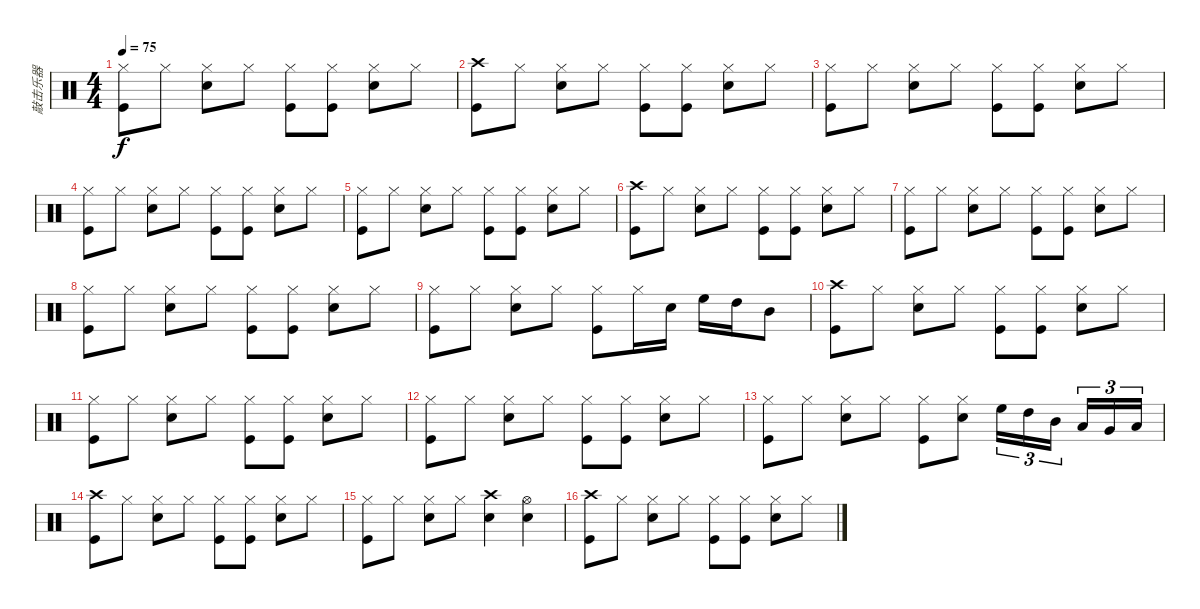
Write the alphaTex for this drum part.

\track ("敲击乐器" "敲击乐器") {instrument percussion}
\staff {score}
\articulation defaults
\ts (4 4)
\tempo 75
\clef neutral
\ks c
("Hi-Hat (closed)" "Kick (hit)").8{dy f} "Hi-Hat (closed)".8 ("Snare (hit) 2" "Hi-Hat (closed)").8 "Hi-Hat (closed)".8 ("Kick (hit)" "Hi-Hat (closed)").8 ("Kick (hit)" "Hi-Hat (closed)").8 ("Snare (hit) 2" "Hi-Hat (closed)").8 "Hi-Hat (closed)".8 |
("Crash high (hit)" "Kick (hit)").8 "Hi-Hat (closed)".8 ("Snare (hit) 2" "Hi-Hat (closed)").8 "Hi-Hat (closed)".8 ("Kick (hit)" "Hi-Hat (closed)").8 ("Kick (hit)" "Hi-Hat (closed)").8 ("Snare (hit) 2" "Hi-Hat (closed)").8 "Hi-Hat (closed)".8 |
("Hi-Hat (closed)" "Kick (hit)").8 "Hi-Hat (closed)".8 ("Snare (hit) 2" "Hi-Hat (closed)").8 "Hi-Hat (closed)".8 ("Kick (hit)" "Hi-Hat (closed)").8 ("Kick (hit)" "Hi-Hat (closed)").8 ("Snare (hit) 2" "Hi-Hat (closed)").8 "Hi-Hat (closed)".8 |
("Hi-Hat (closed)" "Kick (hit)").8 "Hi-Hat (closed)".8 ("Snare (hit) 2" "Hi-Hat (closed)").8 "Hi-Hat (closed)".8 ("Kick (hit)" "Hi-Hat (closed)").8 ("Kick (hit)" "Hi-Hat (closed)").8 ("Snare (hit) 2" "Hi-Hat (closed)").8 "Hi-Hat (closed)".8 |
("Hi-Hat (closed)" "Kick (hit)").8 "Hi-Hat (closed)".8 ("Snare (hit) 2" "Hi-Hat (closed)").8 "Hi-Hat (closed)".8 ("Kick (hit)" "Hi-Hat (closed)").8 ("Kick (hit)" "Hi-Hat (closed)").8 ("Snare (hit) 2" "Hi-Hat (closed)").8 "Hi-Hat (closed)".8 |
("Crash high (hit)" "Kick (hit)").8 "Hi-Hat (closed)".8 ("Snare (hit) 2" "Hi-Hat (closed)").8 "Hi-Hat (closed)".8 ("Kick (hit)" "Hi-Hat (closed)").8 ("Kick (hit)" "Hi-Hat (closed)").8 ("Snare (hit) 2" "Hi-Hat (closed)").8 "Hi-Hat (closed)".8 |
("Hi-Hat (closed)" "Kick (hit)").8 "Hi-Hat (closed)".8 ("Snare (hit) 2" "Hi-Hat (closed)").8 "Hi-Hat (closed)".8 ("Kick (hit)" "Hi-Hat (closed)").8 ("Kick (hit)" "Hi-Hat (closed)").8 ("Snare (hit) 2" "Hi-Hat (closed)").8 "Hi-Hat (closed)".8 |
("Hi-Hat (closed)" "Kick (hit)").8 "Hi-Hat (closed)".8 ("Snare (hit) 2" "Hi-Hat (closed)").8 "Hi-Hat (closed)".8 ("Kick (hit)" "Hi-Hat (closed)").8 ("Kick (hit)" "Hi-Hat (closed)").8 ("Snare (hit) 2" "Hi-Hat (closed)").8 "Hi-Hat (closed)".8 |
("Kick (hit)" "Hi-Hat (closed)").8 "Hi-Hat (closed)".8 ("Snare (hit) 2" "Hi-Hat (closed)").8 "Hi-Hat (closed)".8 ("Kick (hit)" "Hi-Hat (closed)").8 "Hi-Hat (closed)".16 "Snare (hit) 2".16 "High Floor Tom (hit)".16 "High Tom (hit)".16 "Mid Tom (hit)".8 |
("Crash high (hit)" "Kick (hit)").8 "Hi-Hat (closed)".8 ("Snare (hit) 2" "Hi-Hat (closed)").8 "Hi-Hat (closed)".8 ("Kick (hit)" "Hi-Hat (closed)").8 ("Kick (hit)" "Hi-Hat (closed)").8 ("Snare (hit) 2" "Hi-Hat (closed)").8 "Hi-Hat (closed)".8 |
("Hi-Hat (closed)" "Kick (hit)").8 "Hi-Hat (closed)".8 ("Snare (hit) 2" "Hi-Hat (closed)").8 "Hi-Hat (closed)".8 ("Kick (hit)" "Hi-Hat (closed)").8 ("Kick (hit)" "Hi-Hat (closed)").8 ("Snare (hit) 2" "Hi-Hat (closed)").8 "Hi-Hat (closed)".8 |
("Hi-Hat (closed)" "Kick (hit)").8 "Hi-Hat (closed)".8 ("Snare (hit) 2" "Hi-Hat (closed)").8 "Hi-Hat (closed)".8 ("Kick (hit)" "Hi-Hat (closed)").8 ("Kick (hit)" "Hi-Hat (closed)").8 ("Snare (hit) 2" "Hi-Hat (closed)").8 "Hi-Hat (closed)".8 |
("Hi-Hat (closed)" "Kick (hit)").8 "Hi-Hat (closed)".8 ("Snare (hit) 2" "Hi-Hat (closed)").8 "Hi-Hat (closed)".8 ("Hi-Hat (closed)" "Kick (hit)").8 ("Snare (hit) 2" "Hi-Hat (closed)").8 "High Floor Tom (hit)".16{tu (3 2)} "High Tom (hit)".16{tu (3 2)} "Mid Tom (hit)".16{tu (3 2) beam splitsecondary} "Low Tom (hit)".16{tu (3 2)} "Very Low Tom (hit)".16{tu (3 2)} "Low Floor Tom (hit)".16{tu (3 2)} |
("Crash high (hit)" "Kick (hit)").8 "Hi-Hat (closed)".8 ("Snare (hit) 2" "Hi-Hat (closed)").8 "Hi-Hat (closed)".8 ("Kick (hit)" "Hi-Hat (closed)").8 ("Kick (hit)" "Hi-Hat (closed)").8 ("Snare (hit) 2" "Hi-Hat (closed)").8 "Hi-Hat (closed)".8 |
("Hi-Hat (closed)" "Kick (hit)").8 "Hi-Hat (closed)".8 ("Snare (hit) 2" "Hi-Hat (closed)").8 "Hi-Hat (closed)".8 ("Snare (hit) 2" "Crash high (hit)").4 ("Snare (hit) 2" "Hi-Hat (open)").4 |
("Crash high (hit)" "Kick (hit)").8 "Hi-Hat (closed)".8 ("Snare (hit) 2" "Hi-Hat (closed)").8 "Hi-Hat (closed)".8 ("Kick (hit)" "Hi-Hat (closed)").8 ("Kick (hit)" "Hi-Hat (closed)").8 ("Snare (hit) 2" "Hi-Hat (closed)").8 "Hi-Hat (closed)".8
